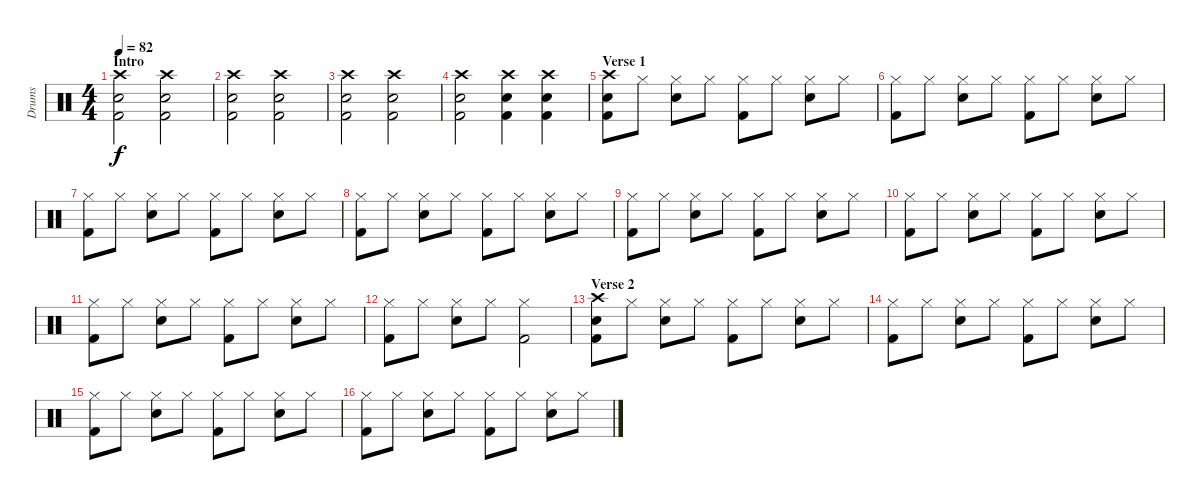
\track ("Drums" "Drums") {instrument percussion}
\staff {score}
\articulation defaults
\ts (4 4)
\section ("" "Intro")
\tempo 82
\clef neutral
\ks c
("Crash high (hit)" "Snare (hit) 2" "Kick (hit) 2").2{dy f} ("Crash high (hit)" "Snare (hit) 2" "Kick (hit) 2").2 |
("Crash high (hit)" "Snare (hit) 2" "Kick (hit) 2").2 ("Crash high (hit)" "Snare (hit) 2" "Kick (hit) 2").2 |
("Crash high (hit)" "Snare (hit) 2" "Kick (hit) 2").2 ("Crash high (hit)" "Snare (hit) 2" "Kick (hit) 2").2 |
("Crash high (hit)" "Snare (hit) 2" "Kick (hit) 2").2 ("Crash high (hit)" "Snare (hit) 2" "Kick (hit) 2").4 ("Crash high (hit)" "Snare (hit) 2" "Kick (hit) 2").4 |
\section ("" "Verse 1")
("Crash high (hit)" "Snare (hit) 2" "Kick (hit) 2").8 "Hi-Hat (closed)".8 ("Hi-Hat (closed)" "Snare (hit) 2").8 "Hi-Hat (closed)".8 ("Hi-Hat (closed)" "Kick (hit) 2").8 "Hi-Hat (closed)".8 ("Hi-Hat (closed)" "Snare (hit) 2").8 "Hi-Hat (closed)".8 |
("Hi-Hat (closed)" "Kick (hit) 2").8 "Hi-Hat (closed)".8 ("Hi-Hat (closed)" "Snare (hit) 2").8 "Hi-Hat (closed)".8 ("Hi-Hat (closed)" "Kick (hit) 2").8 "Hi-Hat (closed)".8 ("Hi-Hat (closed)" "Snare (hit) 2").8 "Hi-Hat (closed)".8 |
("Hi-Hat (closed)" "Kick (hit) 2").8 "Hi-Hat (closed)".8 ("Hi-Hat (closed)" "Snare (hit) 2").8 "Hi-Hat (closed)".8 ("Hi-Hat (closed)" "Kick (hit) 2").8 "Hi-Hat (closed)".8 ("Hi-Hat (closed)" "Snare (hit) 2").8 "Hi-Hat (closed)".8 |
("Hi-Hat (closed)" "Kick (hit) 2").8 "Hi-Hat (closed)".8 ("Hi-Hat (closed)" "Snare (hit) 2").8 "Hi-Hat (closed)".8 ("Hi-Hat (closed)" "Kick (hit) 2").8 "Hi-Hat (closed)".8 ("Hi-Hat (closed)" "Snare (hit) 2").8 "Hi-Hat (closed)".8 |
("Hi-Hat (closed)" "Kick (hit) 2").8 "Hi-Hat (closed)".8 ("Hi-Hat (closed)" "Snare (hit) 2").8 "Hi-Hat (closed)".8 ("Hi-Hat (closed)" "Kick (hit) 2").8 "Hi-Hat (closed)".8 ("Hi-Hat (closed)" "Snare (hit) 2").8 "Hi-Hat (closed)".8 |
("Hi-Hat (closed)" "Kick (hit) 2").8 "Hi-Hat (closed)".8 ("Hi-Hat (closed)" "Snare (hit) 2").8 "Hi-Hat (closed)".8 ("Hi-Hat (closed)" "Kick (hit) 2").8 "Hi-Hat (closed)".8 ("Hi-Hat (closed)" "Snare (hit) 2").8 "Hi-Hat (closed)".8 |
("Hi-Hat (closed)" "Kick (hit) 2").8 "Hi-Hat (closed)".8 ("Hi-Hat (closed)" "Snare (hit) 2").8 "Hi-Hat (closed)".8 ("Hi-Hat (closed)" "Kick (hit) 2").8 "Hi-Hat (closed)".8 ("Hi-Hat (closed)" "Snare (hit) 2").8 "Hi-Hat (closed)".8 |
("Hi-Hat (closed)" "Kick (hit) 2").8 "Hi-Hat (closed)".8 ("Hi-Hat (closed)" "Snare (hit) 2").8 "Hi-Hat (closed)".8 ("Hi-Hat (closed)" "Kick (hit) 2").2 |
\section ("" "Verse 2")
("Crash high (hit)" "Snare (hit) 2" "Kick (hit) 2").8 "Hi-Hat (closed)".8 ("Hi-Hat (closed)" "Snare (hit) 2").8 "Hi-Hat (closed)".8 ("Hi-Hat (closed)" "Kick (hit) 2").8 "Hi-Hat (closed)".8 ("Hi-Hat (closed)" "Snare (hit) 2").8 "Hi-Hat (closed)".8 |
("Hi-Hat (closed)" "Kick (hit) 2").8 "Hi-Hat (closed)".8 ("Hi-Hat (closed)" "Snare (hit) 2").8 "Hi-Hat (closed)".8 ("Hi-Hat (closed)" "Kick (hit) 2").8 "Hi-Hat (closed)".8 ("Hi-Hat (closed)" "Snare (hit) 2").8 "Hi-Hat (closed)".8 |
("Hi-Hat (closed)" "Kick (hit) 2").8 "Hi-Hat (closed)".8 ("Hi-Hat (closed)" "Snare (hit) 2").8 "Hi-Hat (closed)".8 ("Hi-Hat (closed)" "Kick (hit) 2").8 "Hi-Hat (closed)".8 ("Hi-Hat (closed)" "Snare (hit) 2").8 "Hi-Hat (closed)".8 |
("Hi-Hat (closed)" "Kick (hit) 2").8 "Hi-Hat (closed)".8 ("Hi-Hat (closed)" "Snare (hit) 2").8 "Hi-Hat (closed)".8 ("Hi-Hat (closed)" "Kick (hit) 2").8 "Hi-Hat (closed)".8 ("Hi-Hat (closed)" "Snare (hit) 2").8 "Hi-Hat (closed)".8
